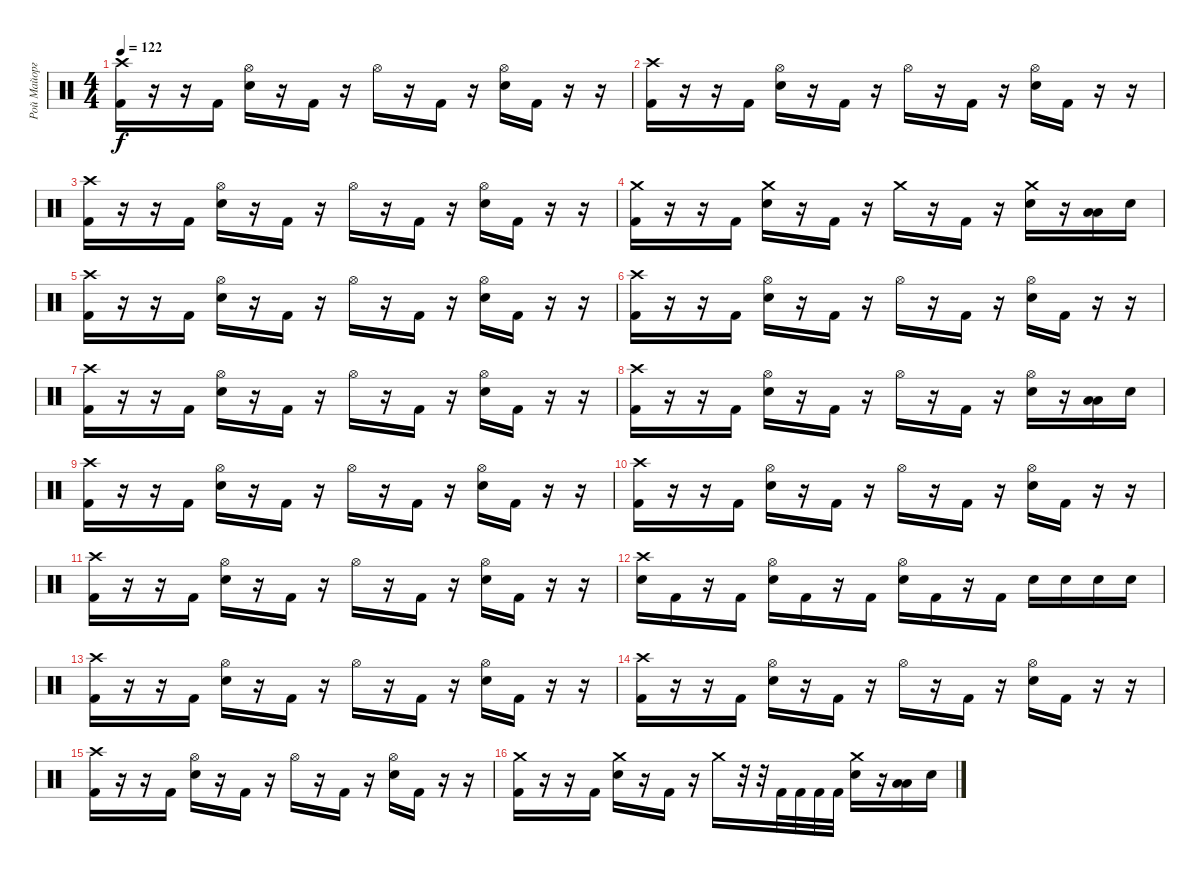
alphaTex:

\track ("Рой Майорга" "Рой Майорг") {instrument percussion}
\staff {score}
\articulation defaults
\ts (4 4)
\tempo 122
\clef neutral
\ks c
("Crash high (hit)" "Kick (hit) 2").16{dy f} r.16 r.16 "Kick (hit) 2".16 ("Hi-Hat (open)" "Electric Snare (hit)").16 r.16 "Kick (hit) 2".16 r.16 "Hi-Hat (open)".16 r.16 "Kick (hit) 2".16 r.16 ("Hi-Hat (open)" "Electric Snare (hit)").16 "Kick (hit) 2".16 r.16 r.16 |
("Crash high (hit)" "Kick (hit) 2").16 r.16 r.16 "Kick (hit) 2".16 ("Hi-Hat (open)" "Electric Snare (hit)").16 r.16 "Kick (hit) 2".16 r.16 "Hi-Hat (open)".16 r.16 "Kick (hit) 2".16 r.16 ("Hi-Hat (open)" "Electric Snare (hit)").16 "Kick (hit) 2".16 r.16 r.16 |
("Crash high (hit)" "Kick (hit) 2").16 r.16 r.16 "Kick (hit) 2".16 ("Hi-Hat (open)" "Electric Snare (hit)").16 r.16 "Kick (hit) 2".16 r.16 "Hi-Hat (open)".16 r.16 "Kick (hit) 2".16 r.16 ("Hi-Hat (open)" "Electric Snare (hit)").16 "Kick (hit) 2".16 r.16 r.16 |
("Crash medium (hit)" "Kick (hit) 2").16 r.16 r.16 "Kick (hit) 2".16 ("Crash medium (hit)" "Electric Snare (hit)").16 r.16 "Kick (hit) 2".16 r.16 "Crash medium (hit)".16 r.16 "Kick (hit) 2".16 r.16 ("Crash medium (hit)" "Electric Snare (hit)").16 r.16 ("Low Tom (hit)" "Low Tom (hit)").16 "Electric Snare (hit)".16 |
("Crash high (hit)" "Kick (hit) 2").16 r.16 r.16 "Kick (hit) 2".16 ("Hi-Hat (open)" "Electric Snare (hit)").16 r.16 "Kick (hit) 2".16 r.16 "Hi-Hat (open)".16 r.16 "Kick (hit) 2".16 r.16 ("Hi-Hat (open)" "Electric Snare (hit)").16 "Kick (hit) 2".16 r.16 r.16 |
("Crash high (hit)" "Kick (hit) 2").16 r.16 r.16 "Kick (hit) 2".16 ("Hi-Hat (open)" "Electric Snare (hit)").16 r.16 "Kick (hit) 2".16 r.16 "Hi-Hat (open)".16 r.16 "Kick (hit) 2".16 r.16 ("Hi-Hat (open)" "Electric Snare (hit)").16 "Kick (hit) 2".16 r.16 r.16 |
("Crash high (hit)" "Kick (hit) 2").16 r.16 r.16 "Kick (hit) 2".16 ("Hi-Hat (open)" "Electric Snare (hit)").16 r.16 "Kick (hit) 2".16 r.16 "Hi-Hat (open)".16 r.16 "Kick (hit) 2".16 r.16 ("Hi-Hat (open)" "Electric Snare (hit)").16 "Kick (hit) 2".16 r.16 r.16 |
("Crash high (hit)" "Kick (hit) 2").16 r.16 r.16 "Kick (hit) 2".16 ("Hi-Hat (open)" "Electric Snare (hit)").16 r.16 "Kick (hit) 2".16 r.16 "Hi-Hat (open)".16 r.16 "Kick (hit) 2".16 r.16 ("Hi-Hat (open)" "Electric Snare (hit)").16 r.16 ("Low Tom (hit)" "Low Tom (hit)").16 "Electric Snare (hit)".16 |
("Crash high (hit)" "Kick (hit) 2").16 r.16 r.16 "Kick (hit) 2".16 ("Hi-Hat (open)" "Electric Snare (hit)").16 r.16 "Kick (hit) 2".16 r.16 "Hi-Hat (open)".16 r.16 "Kick (hit) 2".16 r.16 ("Hi-Hat (open)" "Electric Snare (hit)").16 "Kick (hit) 2".16 r.16 r.16 |
("Crash high (hit)" "Kick (hit) 2").16 r.16 r.16 "Kick (hit) 2".16 ("Hi-Hat (open)" "Electric Snare (hit)").16 r.16 "Kick (hit) 2".16 r.16 "Hi-Hat (open)".16 r.16 "Kick (hit) 2".16 r.16 ("Hi-Hat (open)" "Electric Snare (hit)").16 "Kick (hit) 2".16 r.16 r.16 |
("Crash high (hit)" "Kick (hit) 2").16 r.16 r.16 "Kick (hit) 2".16 ("Hi-Hat (open)" "Electric Snare (hit)").16 r.16 "Kick (hit) 2".16 r.16 "Hi-Hat (open)".16 r.16 "Kick (hit) 2".16 r.16 ("Hi-Hat (open)" "Electric Snare (hit)").16 "Kick (hit) 2".16 r.16 r.16 |
("Crash high (hit)" "Electric Snare (hit)").16 "Kick (hit) 2".16 r.16 "Kick (hit) 2".16 ("Hi-Hat (open)" "Electric Snare (hit)").16 "Kick (hit) 2".16 r.16 "Kick (hit) 2".16 ("Hi-Hat (open)" "Electric Snare (hit)").16 "Kick (hit) 2".16 r.16 "Kick (hit) 2".16 "Electric Snare (hit)".16 "Electric Snare (hit)".16 "Electric Snare (hit)".16 "Electric Snare (hit)".16 |
("Crash high (hit)" "Kick (hit) 2").16 r.16 r.16 "Kick (hit) 2".16 ("Hi-Hat (open)" "Electric Snare (hit)").16 r.16 "Kick (hit) 2".16 r.16 "Hi-Hat (open)".16 r.16 "Kick (hit) 2".16 r.16 ("Hi-Hat (open)" "Electric Snare (hit)").16 "Kick (hit) 2".16 r.16 r.16 |
("Crash high (hit)" "Kick (hit) 2").16 r.16 r.16 "Kick (hit) 2".16 ("Hi-Hat (open)" "Electric Snare (hit)").16 r.16 "Kick (hit) 2".16 r.16 "Hi-Hat (open)".16 r.16 "Kick (hit) 2".16 r.16 ("Hi-Hat (open)" "Electric Snare (hit)").16 "Kick (hit) 2".16 r.16 r.16 |
("Crash high (hit)" "Kick (hit) 2").16 r.16 r.16 "Kick (hit) 2".16 ("Hi-Hat (open)" "Electric Snare (hit)").16 r.16 "Kick (hit) 2".16 r.16 "Hi-Hat (open)".16 r.16 "Kick (hit) 2".16 r.16 ("Hi-Hat (open)" "Electric Snare (hit)").16 "Kick (hit) 2".16 r.16 r.16 |
("Crash medium (hit)" "Kick (hit) 2").16 r.16 r.16 "Kick (hit) 2".16 ("Crash medium (hit)" "Electric Snare (hit)").16 r.16 "Kick (hit) 2".16 r.16 "Crash medium (hit)".16 r.32 r.32 "Kick (hit) 2".32 "Kick (hit) 2".32 "Kick (hit) 2".32 "Kick (hit) 2".32 ("Crash medium (hit)" "Electric Snare (hit)").16 r.16 ("Low Tom (hit)" "Low Tom (hit)").16 "Electric Snare (hit)".16
